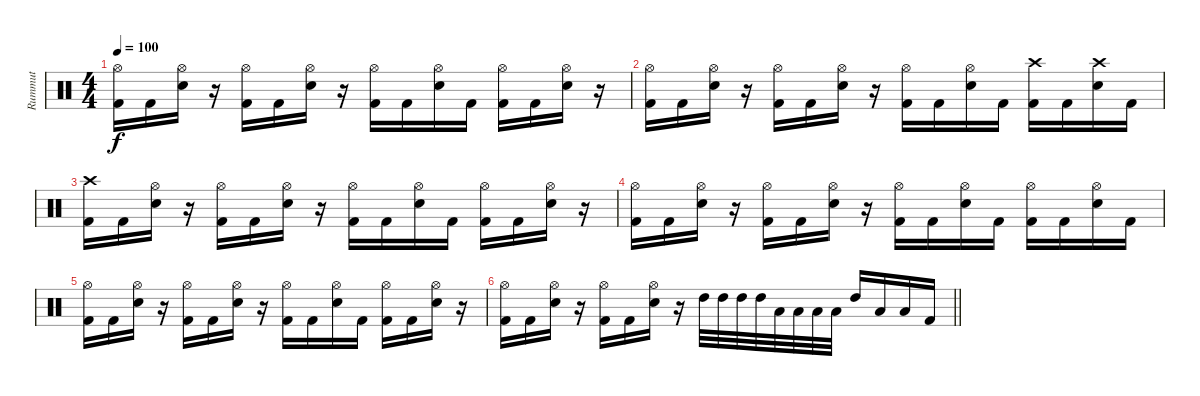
\track ("Rummut" "Rummut") {instrument percussion}
\staff {score}
\articulation defaults
\ts (4 4)
\tempo 100
\clef neutral
\ks c
("Hi-Hat (open)" "Kick (hit) 2").16{dy f} "Kick (hit) 2".16 ("Hi-Hat (open)" "Snare (hit) 2").16 r.16 ("Hi-Hat (open)" "Kick (hit) 2").16 "Kick (hit) 2".16 ("Hi-Hat (open)" "Snare (hit) 2").16 r.16 ("Hi-Hat (open)" "Kick (hit) 2").16 "Kick (hit) 2".16 ("Hi-Hat (open)" "Snare (hit) 2").16 "Kick (hit) 2".16 ("Hi-Hat (open)" "Kick (hit) 2").16 "Kick (hit) 2".16 ("Hi-Hat (open)" "Snare (hit) 2").16 r.16 |
("Hi-Hat (open)" "Kick (hit) 2").16 "Kick (hit) 2".16 ("Hi-Hat (open)" "Snare (hit) 2").16 r.16 ("Hi-Hat (open)" "Kick (hit) 2").16 "Kick (hit) 2".16 ("Hi-Hat (open)" "Snare (hit) 2").16 r.16 ("Hi-Hat (open)" "Kick (hit) 2").16 "Kick (hit) 2".16 ("Hi-Hat (open)" "Snare (hit) 2").16 "Kick (hit) 2".16 ("Crash high (hit)" "Kick (hit) 2").16 "Kick (hit) 2".16 ("Crash high (hit)" "Snare (hit) 2").16 "Kick (hit) 2".16 |
("Crash high (hit)" "Kick (hit) 2").16 "Kick (hit) 2".16 ("Hi-Hat (open)" "Snare (hit) 2").16 r.16 ("Hi-Hat (open)" "Kick (hit) 2").16 "Kick (hit) 2".16 ("Hi-Hat (open)" "Snare (hit) 2").16 r.16 ("Hi-Hat (open)" "Kick (hit) 2").16 "Kick (hit) 2".16 ("Hi-Hat (open)" "Snare (hit) 2").16 "Kick (hit) 2".16 ("Hi-Hat (open)" "Kick (hit) 2").16 "Kick (hit) 2".16 ("Hi-Hat (open)" "Snare (hit) 2").16 r.16 |
("Hi-Hat (open)" "Kick (hit) 2").16 "Kick (hit) 2".16 ("Hi-Hat (open)" "Snare (hit) 2").16 r.16 ("Hi-Hat (open)" "Kick (hit) 2").16 "Kick (hit) 2".16 ("Hi-Hat (open)" "Snare (hit) 2").16 r.16 ("Hi-Hat (open)" "Kick (hit) 2").16 "Kick (hit) 2".16 ("Hi-Hat (open)" "Snare (hit) 2").16 "Kick (hit) 2".16 ("Hi-Hat (open)" "Kick (hit) 2").16 "Kick (hit) 2".16 ("Hi-Hat (open)" "Snare (hit) 2").16 "Kick (hit) 2".16 |
("Hi-Hat (open)" "Kick (hit) 2").16 "Kick (hit) 2".16 ("Hi-Hat (open)" "Snare (hit) 2").16 r.16 ("Hi-Hat (open)" "Kick (hit) 2").16 "Kick (hit) 2".16 ("Hi-Hat (open)" "Snare (hit) 2").16 r.16 ("Hi-Hat (open)" "Kick (hit) 2").16 "Kick (hit) 2".16 ("Hi-Hat (open)" "Snare (hit) 2").16 "Kick (hit) 2".16 ("Hi-Hat (open)" "Kick (hit) 2").16 "Kick (hit) 2".16 ("Hi-Hat (open)" "Snare (hit) 2").16 r.16 |
\barLineRight lightlight
("Hi-Hat (open)" "Kick (hit) 2").16 "Kick (hit) 2".16 ("Hi-Hat (open)" "Snare (hit) 2").16 r.16 ("Hi-Hat (open)" "Kick (hit) 2").16 "Kick (hit) 2".16 ("Hi-Hat (open)" "Snare (hit) 2").16 r.16 "High Tom (hit)".32 "High Tom (hit)".32 "High Tom (hit)".32 "High Tom (hit)".32 "Low Tom (hit)".32 "Low Tom (hit)".32 "Low Tom (hit)".32 "Low Tom (hit)".32 "High Tom (hit)".16 "Low Tom (hit)".16 "Low Floor Tom (hit)".16 "Kick (hit) 2".16
